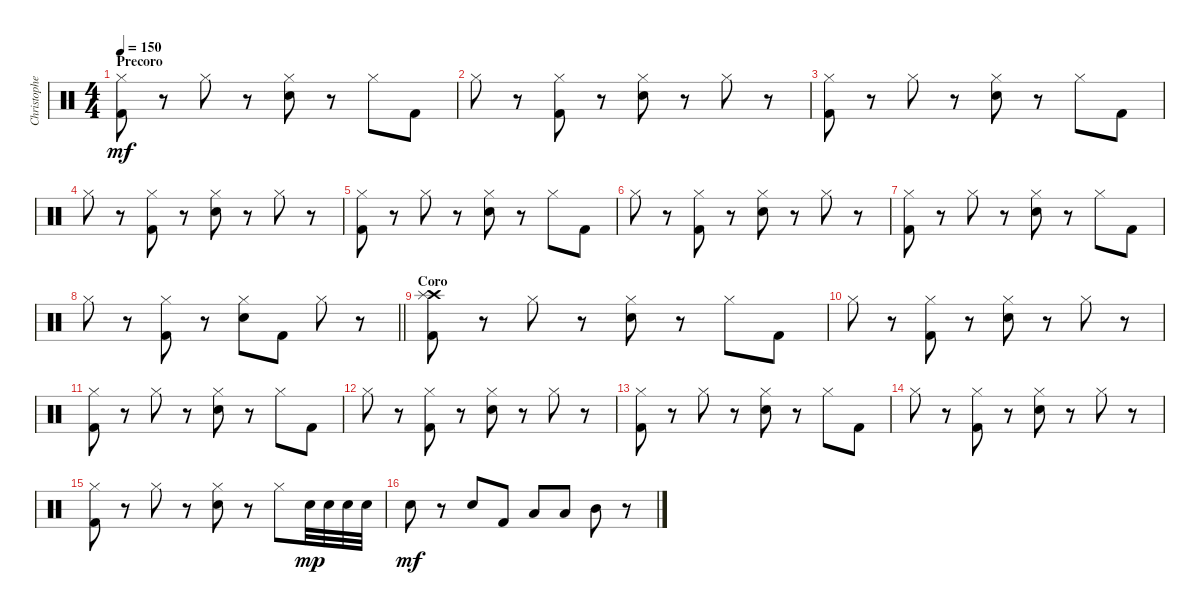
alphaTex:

\track ("Christopher" "Christophe") {instrument percussion}
\staff {score}
\articulation defaults
\ts (4 4)
\section ("" "Precoro")
\tempo 150
\clef neutral
\ks c
("Hi-Hat (closed)" "Kick (hit) 2").8{dy mf} r.8 "Hi-Hat (closed)".8 r.8 ("Hi-Hat (closed)" "Electric Snare (hit)").8 r.8 "Hi-Hat (closed)".8 "Kick (hit) 2".8 |
"Hi-Hat (closed)".8 r.8 ("Hi-Hat (closed)" "Kick (hit) 2").8 r.8 ("Hi-Hat (closed)" "Electric Snare (hit)").8 r.8 "Hi-Hat (closed)".8 r.8 |
("Hi-Hat (closed)" "Kick (hit) 2").8 r.8 "Hi-Hat (closed)".8 r.8 ("Hi-Hat (closed)" "Electric Snare (hit)").8 r.8 "Hi-Hat (closed)".8 "Kick (hit) 2".8 |
"Hi-Hat (closed)".8 r.8 ("Hi-Hat (closed)" "Kick (hit) 2").8 r.8 ("Hi-Hat (closed)" "Electric Snare (hit)").8 r.8 "Hi-Hat (closed)".8 r.8 |
("Hi-Hat (closed)" "Kick (hit) 2").8 r.8 "Hi-Hat (closed)".8 r.8 ("Hi-Hat (closed)" "Electric Snare (hit)").8 r.8 "Hi-Hat (closed)".8 "Kick (hit) 2".8 |
"Hi-Hat (closed)".8 r.8 ("Hi-Hat (closed)" "Kick (hit) 2").8 r.8 ("Hi-Hat (closed)" "Electric Snare (hit)").8 r.8 "Hi-Hat (closed)".8 r.8 |
("Hi-Hat (closed)" "Kick (hit) 2").8 r.8 "Hi-Hat (closed)".8 r.8 ("Hi-Hat (closed)" "Electric Snare (hit)").8 r.8 "Hi-Hat (closed)".8 "Kick (hit) 2".8 |
\barLineRight lightlight "Hi-Hat (closed)".8
r.8 ("Hi-Hat (closed)" "Kick (hit) 2").8 r.8 ("Hi-Hat (closed)" "Electric Snare (hit)").8 "Kick (hit) 2".8 "Hi-Hat (closed)".8 r.8 |
\section ("" "Coro")
("Crash high (hit)" "Splash (hit)" "Kick (hit) 2").8 r.8 "Hi-Hat (closed)".8 r.8 ("Hi-Hat (closed)" "Electric Snare (hit)").8 r.8 "Hi-Hat (closed)".8 "Kick (hit) 2".8 |
"Hi-Hat (closed)".8 r.8 ("Hi-Hat (closed)" "Kick (hit) 2").8 r.8 ("Hi-Hat (closed)" "Electric Snare (hit)").8 r.8 "Hi-Hat (closed)".8 r.8 |
("Hi-Hat (closed)" "Kick (hit) 2").8 r.8 "Hi-Hat (closed)".8 r.8 ("Hi-Hat (closed)" "Electric Snare (hit)").8 r.8 "Hi-Hat (closed)".8 "Kick (hit) 2".8 |
"Hi-Hat (closed)".8 r.8 ("Hi-Hat (closed)" "Kick (hit) 2").8 r.8 ("Hi-Hat (closed)" "Electric Snare (hit)").8 r.8 "Hi-Hat (closed)".8 r.8 |
("Hi-Hat (closed)" "Kick (hit) 2").8 r.8 "Hi-Hat (closed)".8 r.8 ("Hi-Hat (closed)" "Electric Snare (hit)").8 r.8 "Hi-Hat (closed)".8 "Kick (hit) 2".8 |
"Hi-Hat (closed)".8 r.8 ("Hi-Hat (closed)" "Kick (hit) 2").8 r.8 ("Hi-Hat (closed)" "Electric Snare (hit)").8 r.8 "Hi-Hat (closed)".8 r.8 |
("Hi-Hat (closed)" "Kick (hit) 2").8 r.8 "Hi-Hat (closed)".8 r.8 ("Hi-Hat (closed)" "Electric Snare (hit)").8 r.8 "Hi-Hat (closed)".8 "Electric Snare (hit)".32{dy mp} "Electric Snare (hit)".32 "Electric Snare (hit)".32 "Electric Snare (hit)".32 |
"Electric Snare (hit)".8{dy mf} r.8 "Electric Snare (hit)".8 "Kick (hit) 2".8 "Low Tom (hit)".8 "Low Tom (hit)".8 "Mid Tom (hit)".8 r.8
